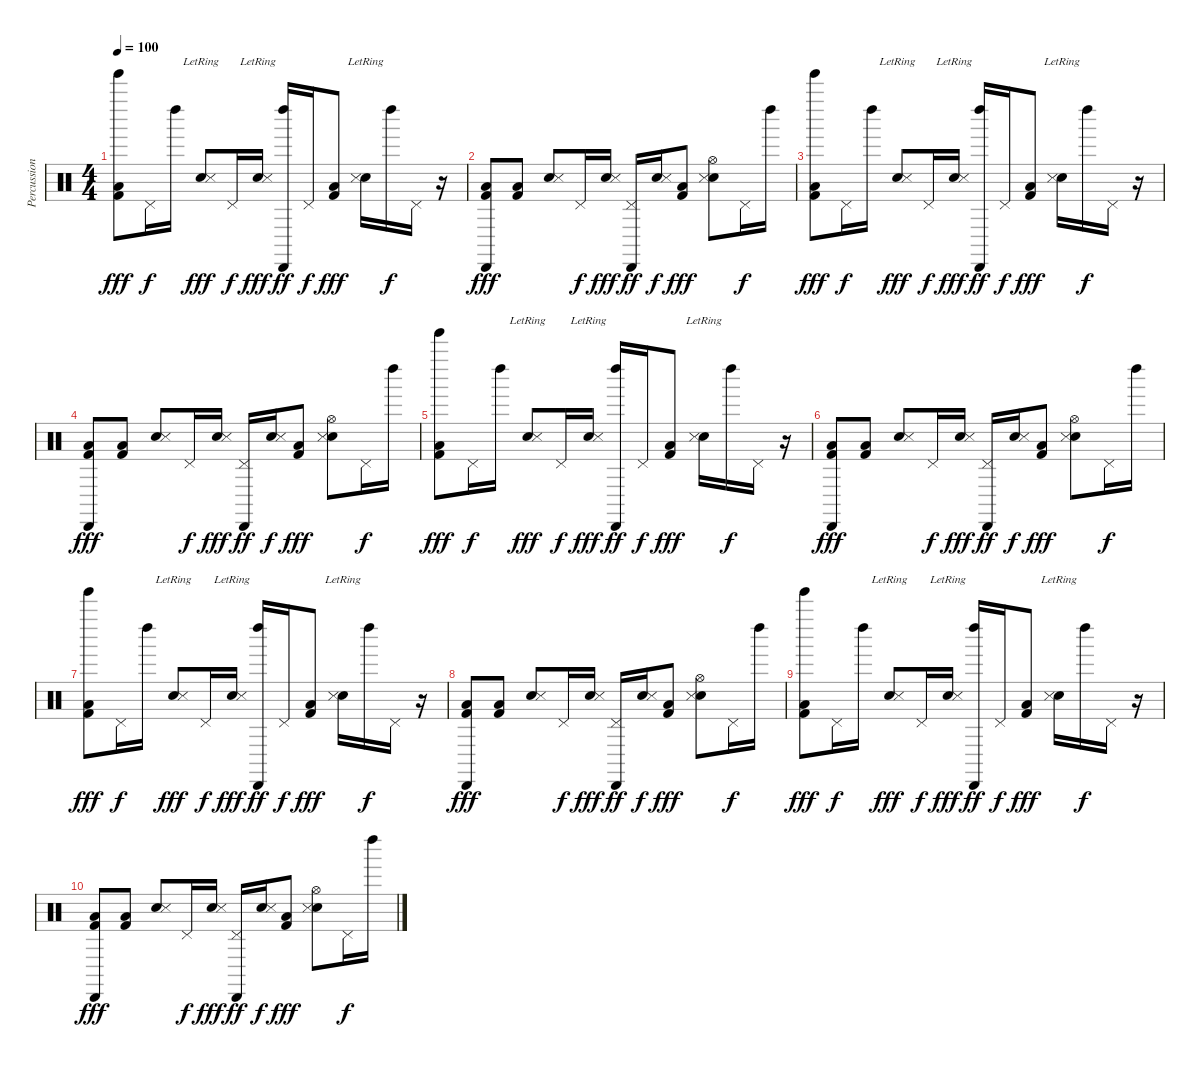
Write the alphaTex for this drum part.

\track ("Percussion" "Percussion") {instrument percussion}
\staff {score}
\articulation defaults
\ts (4 4)
\tempo 100
\clef neutral
\ks c
("Tinkle Bell (hit)" "Low Floor Tom (hit)" "Kick (hit) 2").8{dy fff volume 10} "Pedal Hi-Hat (hit)".16{dy f} "Left Maraca (hit)".16 ("Electric Snare (hit)" "Snare (side stick) 3"{lr}).8{dy fff} "Pedal Hi-Hat (hit)".16{dy f} ("Electric Snare (hit)" "Snare (side stick) 3"{lr}).16{dy fff} ("Cabasa (hit)" "Left Maraca (hit)").16{dy ff} "Pedal Hi-Hat (hit)".16{dy f} ("Low Floor Tom (hit)" "Kick (hit) 2").8{dy fff} ("Electric Snare (hit)"{lr} "Snare (side stick) 3"{lr}).16 "Left Maraca (hit)".16{dy f} "Pedal Hi-Hat (hit)".16 r.16 |
("Cabasa (hit)" "Low Floor Tom (hit)" "Kick (hit) 2").8{dy fff} ("Low Floor Tom (hit)" "Kick (hit) 2").8 ("Electric Snare (hit)" "Snare (side stick) 3").8 "Pedal Hi-Hat (hit)".16{dy f} ("Electric Snare (hit)" "Snare (side stick) 3").16{dy fff} ("Cabasa (hit)" "Pedal Hi-Hat (hit)").16{dy ff} ("Electric Snare (hit)" "Snare (side stick) 3").16{dy f} ("Low Floor Tom (hit)" "Kick (hit) 2").8{dy fff} ("Hi-Hat (open)" "Electric Snare (hit)" "Snare (side stick) 3").8 "Pedal Hi-Hat (hit)".16{dy f} "Left Maraca (hit)".16 |
("Tinkle Bell (hit)" "Low Floor Tom (hit)" "Kick (hit) 2").8{dy fff} "Pedal Hi-Hat (hit)".16{dy f} "Left Maraca (hit)".16 ("Electric Snare (hit)" "Snare (side stick) 3"{lr}).8{dy fff} "Pedal Hi-Hat (hit)".16{dy f} ("Electric Snare (hit)" "Snare (side stick) 3"{lr}).16{dy fff} ("Cabasa (hit)" "Left Maraca (hit)").16{dy ff} "Pedal Hi-Hat (hit)".16{dy f} ("Low Floor Tom (hit)" "Kick (hit) 2").8{dy fff} ("Electric Snare (hit)"{lr} "Snare (side stick) 3"{lr}).16 "Left Maraca (hit)".16{dy f} "Pedal Hi-Hat (hit)".16 r.16 |
("Cabasa (hit)" "Low Floor Tom (hit)" "Kick (hit) 2").8{dy fff} ("Low Floor Tom (hit)" "Kick (hit) 2").8 ("Electric Snare (hit)" "Snare (side stick) 3").8 "Pedal Hi-Hat (hit)".16{dy f} ("Electric Snare (hit)" "Snare (side stick) 3").16{dy fff} ("Cabasa (hit)" "Pedal Hi-Hat (hit)").16{dy ff} ("Electric Snare (hit)" "Snare (side stick) 3").16{dy f} ("Low Floor Tom (hit)" "Kick (hit) 2").8{dy fff} ("Hi-Hat (open)" "Electric Snare (hit)" "Snare (side stick) 3").8 "Pedal Hi-Hat (hit)".16{dy f} "Left Maraca (hit)".16 |
("Tinkle Bell (hit)" "Low Floor Tom (hit)" "Kick (hit) 2").8{dy fff volume 1} "Pedal Hi-Hat (hit)".16{dy f} "Left Maraca (hit)".16 ("Electric Snare (hit)" "Snare (side stick) 3"{lr}).8{dy fff} "Pedal Hi-Hat (hit)".16{dy f} ("Electric Snare (hit)" "Snare (side stick) 3"{lr}).16{dy fff} ("Cabasa (hit)" "Left Maraca (hit)").16{dy ff} "Pedal Hi-Hat (hit)".16{dy f} ("Low Floor Tom (hit)" "Kick (hit) 2").8{dy fff} ("Electric Snare (hit)"{lr} "Snare (side stick) 3"{lr}).16 "Left Maraca (hit)".16{dy f} "Pedal Hi-Hat (hit)".16 r.16 |
("Cabasa (hit)" "Low Floor Tom (hit)" "Kick (hit) 2").8{dy fff} ("Low Floor Tom (hit)" "Kick (hit) 2").8 ("Electric Snare (hit)" "Snare (side stick) 3").8 "Pedal Hi-Hat (hit)".16{dy f} ("Electric Snare (hit)" "Snare (side stick) 3").16{dy fff} ("Cabasa (hit)" "Pedal Hi-Hat (hit)").16{dy ff} ("Electric Snare (hit)" "Snare (side stick) 3").16{dy f} ("Low Floor Tom (hit)" "Kick (hit) 2").8{dy fff} ("Hi-Hat (open)" "Electric Snare (hit)" "Snare (side stick) 3").8 "Pedal Hi-Hat (hit)".16{dy f} "Left Maraca (hit)".16 |
("Tinkle Bell (hit)" "Low Floor Tom (hit)" "Kick (hit) 2").8{dy fff} "Pedal Hi-Hat (hit)".16{dy f} "Left Maraca (hit)".16 ("Electric Snare (hit)" "Snare (side stick) 3"{lr}).8{dy fff} "Pedal Hi-Hat (hit)".16{dy f} ("Electric Snare (hit)" "Snare (side stick) 3"{lr}).16{dy fff} ("Cabasa (hit)" "Left Maraca (hit)").16{dy ff} "Pedal Hi-Hat (hit)".16{dy f} ("Low Floor Tom (hit)" "Kick (hit) 2").8{dy fff} ("Electric Snare (hit)"{lr} "Snare (side stick) 3"{lr}).16 "Left Maraca (hit)".16{dy f} "Pedal Hi-Hat (hit)".16 r.16 |
("Cabasa (hit)" "Low Floor Tom (hit)" "Kick (hit) 2").8{dy fff} ("Low Floor Tom (hit)" "Kick (hit) 2").8 ("Electric Snare (hit)" "Snare (side stick) 3").8 "Pedal Hi-Hat (hit)".16{dy f} ("Electric Snare (hit)" "Snare (side stick) 3").16{dy fff} ("Cabasa (hit)" "Pedal Hi-Hat (hit)").16{dy ff} ("Electric Snare (hit)" "Snare (side stick) 3").16{dy f} ("Low Floor Tom (hit)" "Kick (hit) 2").8{dy fff} ("Hi-Hat (open)" "Electric Snare (hit)" "Snare (side stick) 3").8 "Pedal Hi-Hat (hit)".16{dy f} "Left Maraca (hit)".16 |
("Tinkle Bell (hit)" "Low Floor Tom (hit)" "Kick (hit) 2").8{dy fff} "Pedal Hi-Hat (hit)".16{dy f} "Left Maraca (hit)".16 ("Electric Snare (hit)" "Snare (side stick) 3"{lr}).8{dy fff} "Pedal Hi-Hat (hit)".16{dy f} ("Electric Snare (hit)" "Snare (side stick) 3"{lr}).16{dy fff} ("Cabasa (hit)" "Left Maraca (hit)").16{dy ff} "Pedal Hi-Hat (hit)".16{dy f} ("Low Floor Tom (hit)" "Kick (hit) 2").8{dy fff} ("Electric Snare (hit)"{lr} "Snare (side stick) 3"{lr}).16 "Left Maraca (hit)".16{dy f} "Pedal Hi-Hat (hit)".16 r.16 |
("Cabasa (hit)" "Low Floor Tom (hit)" "Kick (hit) 2").8{dy fff} ("Low Floor Tom (hit)" "Kick (hit) 2").8 ("Electric Snare (hit)" "Snare (side stick) 3").8 "Pedal Hi-Hat (hit)".16{dy f} ("Electric Snare (hit)" "Snare (side stick) 3").16{dy fff} ("Cabasa (hit)" "Pedal Hi-Hat (hit)").16{dy ff} ("Electric Snare (hit)" "Snare (side stick) 3").16{dy f} ("Low Floor Tom (hit)" "Kick (hit) 2").8{dy fff} ("Hi-Hat (open)" "Electric Snare (hit)" "Snare (side stick) 3").8 "Pedal Hi-Hat (hit)".16{dy f} "Left Maraca (hit)".16
